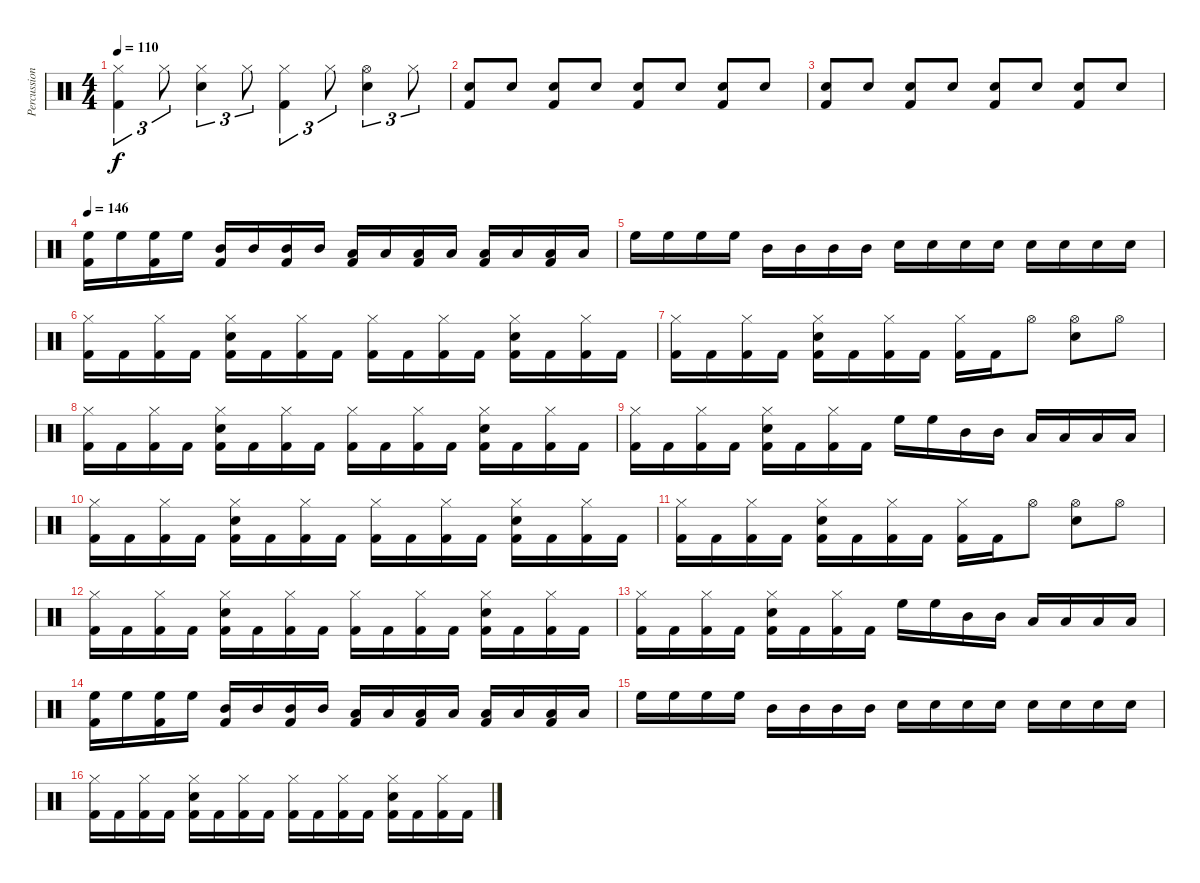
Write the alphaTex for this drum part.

\track ("Percussion" "Percussion") {instrument percussion}
\staff {score}
\articulation defaults
\ts (4 4)
\tempo 110
\clef neutral
\ks c
("Hi-Hat (closed)" "Kick (hit) 2").4{tu (3 2) dy f} "Hi-Hat (closed)".8{tu (3 2)} ("Hi-Hat (closed)" "Snare (hit) 2").4{tu (3 2)} "Hi-Hat (closed)".8{tu (3 2)} ("Hi-Hat (closed)" "Kick (hit) 2").4{tu (3 2)} "Hi-Hat (closed)".8{tu (3 2)} ("Hi-Hat (open)" "Snare (hit) 2").4{tu (3 2)} "Hi-Hat (closed)".8{tu (3 2) volume 10} |
("Snare (hit) 2" "Kick (hit) 2").8{volume 15} "Snare (hit) 2".8 ("Snare (hit) 2" "Kick (hit) 2").8 "Snare (hit) 2".8 ("Snare (hit) 2" "Kick (hit) 2").8 "Snare (hit) 2".8 ("Snare (hit) 2" "Kick (hit) 2").8 "Snare (hit) 2".8 |
("Snare (hit) 2" "Kick (hit) 2").8 "Snare (hit) 2".8 ("Snare (hit) 2" "Kick (hit) 2").8 "Snare (hit) 2".8 ("Snare (hit) 2" "Kick (hit) 2").8 "Snare (hit) 2".8 ("Snare (hit) 2" "Kick (hit) 2").8 "Snare (hit) 2".8 |
\tempo 146
("High Floor Tom (hit)" "Kick (hit) 2").16 "High Floor Tom (hit)".16 ("High Floor Tom (hit)" "Kick (hit) 2").16 "High Floor Tom (hit)".16 ("Mid Tom (hit)" "Kick (hit) 2").16 "Mid Tom (hit)".16 ("Mid Tom (hit)" "Kick (hit) 2").16 "Mid Tom (hit)".16 ("Low Tom (hit)" "Kick (hit) 2").16 "Low Tom (hit)".16 ("Low Tom (hit)" "Kick (hit) 2").16 "Low Tom (hit)".16 ("Low Floor Tom (hit)" "Kick (hit) 2").16 "Low Floor Tom (hit)".16 ("Low Floor Tom (hit)" "Kick (hit) 2").16 "Low Floor Tom (hit)".16 |
"High Floor Tom (hit)".16 "High Floor Tom (hit)".16 "High Floor Tom (hit)".16 "High Floor Tom (hit)".16 "Mid Tom (hit)".16 "Mid Tom (hit)".16 "Mid Tom (hit)".16 "Mid Tom (hit)".16 "Snare (hit) 2".16 "Snare (hit) 2".16 "Snare (hit) 2".16 "Snare (hit) 2".16 "Snare (hit) 2".16 "Snare (hit) 2".16 "Snare (hit) 2".16 "Snare (hit) 2".16 |
("Hi-Hat (closed)" "Kick (hit) 2").16 "Kick (hit) 2".16 ("Hi-Hat (closed)" "Kick (hit) 2").16 "Kick (hit) 2".16 ("Hi-Hat (closed)" "Snare (hit) 2" "Kick (hit) 2").16 "Kick (hit) 2".16 ("Hi-Hat (closed)" "Kick (hit) 2").16 "Kick (hit) 2".16 ("Hi-Hat (closed)" "Kick (hit) 2").16 "Kick (hit) 2".16 ("Hi-Hat (closed)" "Kick (hit) 2").16 "Kick (hit) 2".16 ("Hi-Hat (closed)" "Snare (hit) 2" "Kick (hit) 2").16 "Kick (hit) 2".16 ("Hi-Hat (closed)" "Kick (hit) 2").16 "Kick (hit) 2".16 |
("Hi-Hat (closed)" "Kick (hit) 2").16 "Kick (hit) 2".16 ("Hi-Hat (closed)" "Kick (hit) 2").16 "Kick (hit) 2".16 ("Hi-Hat (closed)" "Snare (hit) 2" "Kick (hit) 2").16 "Kick (hit) 2".16 ("Hi-Hat (closed)" "Kick (hit) 2").16 "Kick (hit) 2".16 ("Hi-Hat (closed)" "Kick (hit) 2").16 "Kick (hit) 2".16 "Hi-Hat (open)".8 ("Hi-Hat (open)" "Snare (hit) 2").8 "Hi-Hat (open)".8 |
("Hi-Hat (closed)" "Kick (hit) 2").16 "Kick (hit) 2".16 ("Hi-Hat (closed)" "Kick (hit) 2").16 "Kick (hit) 2".16 ("Hi-Hat (closed)" "Snare (hit) 2" "Kick (hit) 2").16 "Kick (hit) 2".16 ("Hi-Hat (closed)" "Kick (hit) 2").16 "Kick (hit) 2".16 ("Hi-Hat (closed)" "Kick (hit) 2").16 "Kick (hit) 2".16 ("Hi-Hat (closed)" "Kick (hit) 2").16 "Kick (hit) 2".16 ("Hi-Hat (closed)" "Snare (hit) 2" "Kick (hit) 2").16 "Kick (hit) 2".16 ("Hi-Hat (closed)" "Kick (hit) 2").16 "Kick (hit) 2".16 |
("Hi-Hat (closed)" "Kick (hit) 2").16 "Kick (hit) 2".16 ("Hi-Hat (closed)" "Kick (hit) 2").16 "Kick (hit) 2".16 ("Hi-Hat (closed)" "Snare (hit) 2" "Kick (hit) 2").16 "Kick (hit) 2".16 ("Hi-Hat (closed)" "Kick (hit) 2").16 "Kick (hit) 2".16 "High Floor Tom (hit)".16 "High Floor Tom (hit)".16 "Mid Tom (hit)".16 "Mid Tom (hit)".16 "Low Tom (hit)".16 "Low Tom (hit)".16 "Low Floor Tom (hit)".16 "Low Floor Tom (hit)".16 |
("Hi-Hat (closed)" "Kick (hit) 2").16 "Kick (hit) 2".16 ("Hi-Hat (closed)" "Kick (hit) 2").16 "Kick (hit) 2".16 ("Hi-Hat (closed)" "Snare (hit) 2" "Kick (hit) 2").16 "Kick (hit) 2".16 ("Hi-Hat (closed)" "Kick (hit) 2").16 "Kick (hit) 2".16 ("Hi-Hat (closed)" "Kick (hit) 2").16 "Kick (hit) 2".16 ("Hi-Hat (closed)" "Kick (hit) 2").16 "Kick (hit) 2".16 ("Hi-Hat (closed)" "Snare (hit) 2" "Kick (hit) 2").16 "Kick (hit) 2".16 ("Hi-Hat (closed)" "Kick (hit) 2").16 "Kick (hit) 2".16 |
("Hi-Hat (closed)" "Kick (hit) 2").16 "Kick (hit) 2".16 ("Hi-Hat (closed)" "Kick (hit) 2").16 "Kick (hit) 2".16 ("Hi-Hat (closed)" "Snare (hit) 2" "Kick (hit) 2").16 "Kick (hit) 2".16 ("Hi-Hat (closed)" "Kick (hit) 2").16 "Kick (hit) 2".16 ("Hi-Hat (closed)" "Kick (hit) 2").16 "Kick (hit) 2".16 "Hi-Hat (open)".8 ("Hi-Hat (open)" "Snare (hit) 2").8 "Hi-Hat (open)".8 |
("Hi-Hat (closed)" "Kick (hit) 2").16 "Kick (hit) 2".16 ("Hi-Hat (closed)" "Kick (hit) 2").16 "Kick (hit) 2".16 ("Hi-Hat (closed)" "Snare (hit) 2" "Kick (hit) 2").16 "Kick (hit) 2".16 ("Hi-Hat (closed)" "Kick (hit) 2").16 "Kick (hit) 2".16 ("Hi-Hat (closed)" "Kick (hit) 2").16 "Kick (hit) 2".16 ("Hi-Hat (closed)" "Kick (hit) 2").16 "Kick (hit) 2".16 ("Hi-Hat (closed)" "Snare (hit) 2" "Kick (hit) 2").16 "Kick (hit) 2".16 ("Hi-Hat (closed)" "Kick (hit) 2").16 "Kick (hit) 2".16 |
("Hi-Hat (closed)" "Kick (hit) 2").16 "Kick (hit) 2".16 ("Hi-Hat (closed)" "Kick (hit) 2").16 "Kick (hit) 2".16 ("Hi-Hat (closed)" "Snare (hit) 2" "Kick (hit) 2").16 "Kick (hit) 2".16 ("Hi-Hat (closed)" "Kick (hit) 2").16 "Kick (hit) 2".16 "High Floor Tom (hit)".16 "High Floor Tom (hit)".16 "Mid Tom (hit)".16 "Mid Tom (hit)".16 "Low Tom (hit)".16 "Low Tom (hit)".16 "Low Floor Tom (hit)".16 "Low Floor Tom (hit)".16 |
("High Floor Tom (hit)" "Kick (hit) 2").16 "High Floor Tom (hit)".16 ("High Floor Tom (hit)" "Kick (hit) 2").16 "High Floor Tom (hit)".16 ("Mid Tom (hit)" "Kick (hit) 2").16 "Mid Tom (hit)".16 ("Mid Tom (hit)" "Kick (hit) 2").16 "Mid Tom (hit)".16 ("Low Tom (hit)" "Kick (hit) 2").16 "Low Tom (hit)".16 ("Low Tom (hit)" "Kick (hit) 2").16 "Low Tom (hit)".16 ("Low Floor Tom (hit)" "Kick (hit) 2").16 "Low Floor Tom (hit)".16 ("Low Floor Tom (hit)" "Kick (hit) 2").16 "Low Floor Tom (hit)".16 |
"High Floor Tom (hit)".16 "High Floor Tom (hit)".16 "High Floor Tom (hit)".16 "High Floor Tom (hit)".16 "Mid Tom (hit)".16 "Mid Tom (hit)".16 "Mid Tom (hit)".16 "Mid Tom (hit)".16 "Snare (hit) 2".16 "Snare (hit) 2".16 "Snare (hit) 2".16 "Snare (hit) 2".16 "Snare (hit) 2".16 "Snare (hit) 2".16 "Snare (hit) 2".16 "Snare (hit) 2".16 |
("Hi-Hat (closed)" "Kick (hit) 2").16 "Kick (hit) 2".16 ("Hi-Hat (closed)" "Kick (hit) 2").16 "Kick (hit) 2".16 ("Hi-Hat (closed)" "Snare (hit) 2" "Kick (hit) 2").16 "Kick (hit) 2".16 ("Hi-Hat (closed)" "Kick (hit) 2").16 "Kick (hit) 2".16 ("Hi-Hat (closed)" "Kick (hit) 2").16 "Kick (hit) 2".16 ("Hi-Hat (closed)" "Kick (hit) 2").16 "Kick (hit) 2".16 ("Hi-Hat (closed)" "Snare (hit) 2" "Kick (hit) 2").16 "Kick (hit) 2".16 ("Hi-Hat (closed)" "Kick (hit) 2").16 "Kick (hit) 2".16
